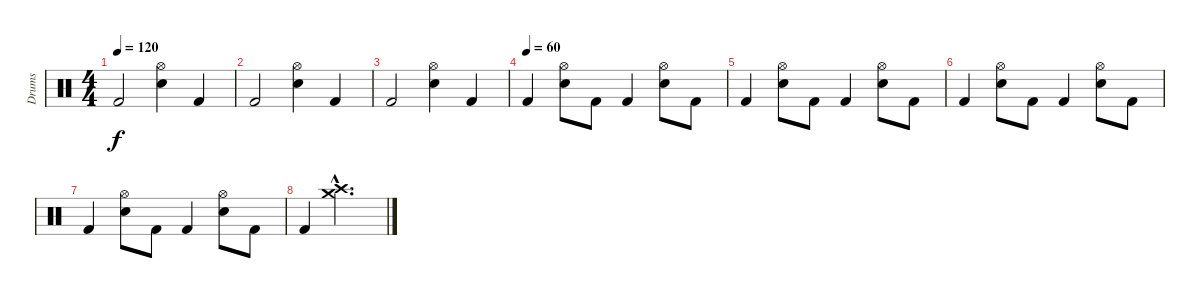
\track ("Drums" "Drums") {instrument percussion}
\staff {score}
\articulation defaults
\ts (4 4)
\tempo 120
\clef neutral
\ks c "Kick (hit) 2".2{dy f}
("Hi-Hat (open)" "Electric Snare (hit)").4 "Kick (hit) 2".4 |
"Kick (hit) 2".2 ("Hi-Hat (open)" "Electric Snare (hit)").4 "Kick (hit) 2".4 |
"Kick (hit) 2".2 ("Hi-Hat (open)" "Electric Snare (hit)").4 "Kick (hit) 2".4 |
\tempo (60)
"Kick (hit) 2".4 ("Hi-Hat (open)" "Electric Snare (hit)").8 "Kick (hit) 2".8 "Kick (hit) 2".4 ("Hi-Hat (open)" "Electric Snare (hit)").8 "Kick (hit) 2".8 |
"Kick (hit) 2".4 ("Hi-Hat (open)" "Electric Snare (hit)").8 "Kick (hit) 2".8 "Kick (hit) 2".4 ("Hi-Hat (open)" "Electric Snare (hit)").8 "Kick (hit) 2".8 |
"Kick (hit) 2".4 ("Hi-Hat (open)" "Electric Snare (hit)").8 "Kick (hit) 2".8 "Kick (hit) 2".4 ("Hi-Hat (open)" "Electric Snare (hit)").8 "Kick (hit) 2".8 |
"Kick (hit) 2".4 ("Hi-Hat (open)" "Electric Snare (hit)").8 "Kick (hit) 2".8 "Kick (hit) 2".4 ("Hi-Hat (open)" "Electric Snare (hit)").8 "Kick (hit) 2".8 |
"Kick (hit) 2".4 ("Crash high (hit)"{hac} "Crash medium (hit)"{hac}).2{d}
